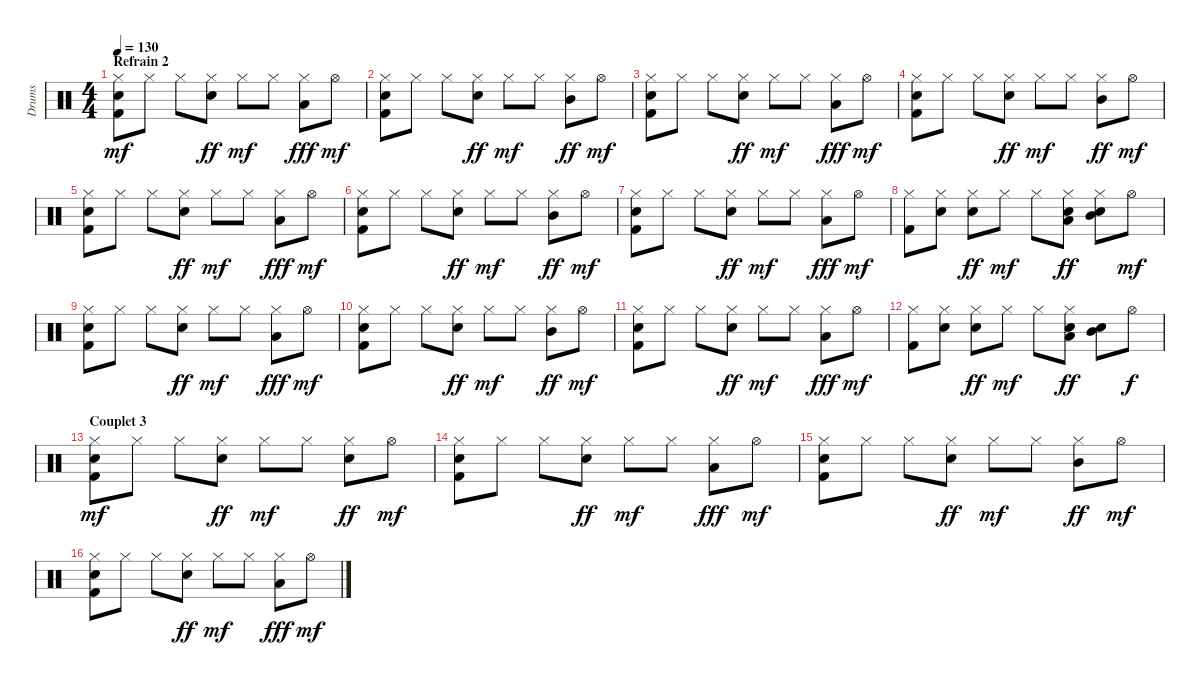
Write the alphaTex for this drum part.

\track ("Drums" "Drums") {instrument percussion}
\staff {score}
\articulation defaults
\ts (4 4)
\section ("" "Refrain 2")
\tempo 130
\clef neutral
\ks c
("Hi-Hat (closed)" "Snare (hit) 2" "Kick (hit) 2").8{dy mf} "Hi-Hat (closed)".8 "Hi-Hat (closed)".8 ("Hi-Hat (closed)" "Electric Snare (hit)").8{dy ff} "Hi-Hat (closed)".8{dy mf} "Hi-Hat (closed)".8 ("Hi-Hat (closed)" "Low Tom (hit)").8{dy fff} "Hi-Hat (open)".8{dy mf} |
("Hi-Hat (closed)" "Electric Snare (hit)" "Kick (hit) 2").8 "Hi-Hat (closed)".8 "Hi-Hat (closed)".8 ("Hi-Hat (closed)" "Electric Snare (hit)").8{dy ff} "Hi-Hat (closed)".8{dy mf} "Hi-Hat (closed)".8 ("Hi-Hat (closed)" "Mid Tom (hit)").8{dy ff} "Hi-Hat (open)".8{dy mf} |
("Hi-Hat (closed)" "Snare (hit) 2" "Kick (hit) 2").8 "Hi-Hat (closed)".8 "Hi-Hat (closed)".8 ("Hi-Hat (closed)" "Electric Snare (hit)").8{dy ff} "Hi-Hat (closed)".8{dy mf} "Hi-Hat (closed)".8 ("Hi-Hat (closed)" "Low Tom (hit)").8{dy fff} "Hi-Hat (open)".8{dy mf} |
("Hi-Hat (closed)" "Electric Snare (hit)" "Kick (hit) 2").8 "Hi-Hat (closed)".8 "Hi-Hat (closed)".8 ("Hi-Hat (closed)" "Electric Snare (hit)").8{dy ff} "Hi-Hat (closed)".8{dy mf} "Hi-Hat (closed)".8 ("Hi-Hat (closed)" "Mid Tom (hit)").8{dy ff} "Hi-Hat (open)".8{dy mf} |
("Hi-Hat (closed)" "Snare (hit) 2" "Kick (hit) 2").8 "Hi-Hat (closed)".8 "Hi-Hat (closed)".8 ("Hi-Hat (closed)" "Electric Snare (hit)").8{dy ff} "Hi-Hat (closed)".8{dy mf} "Hi-Hat (closed)".8 ("Hi-Hat (closed)" "Low Tom (hit)").8{dy fff} "Hi-Hat (open)".8{dy mf} |
("Hi-Hat (closed)" "Electric Snare (hit)" "Kick (hit) 2").8 "Hi-Hat (closed)".8 "Hi-Hat (closed)".8 ("Hi-Hat (closed)" "Electric Snare (hit)").8{dy ff} "Hi-Hat (closed)".8{dy mf} "Hi-Hat (closed)".8 ("Hi-Hat (closed)" "Mid Tom (hit)").8{dy ff} "Hi-Hat (open)".8{dy mf} |
("Hi-Hat (closed)" "Snare (hit) 2" "Kick (hit) 2").8 "Hi-Hat (closed)".8 "Hi-Hat (closed)".8 ("Hi-Hat (closed)" "Electric Snare (hit)").8{dy ff} "Hi-Hat (closed)".8{dy mf} "Hi-Hat (closed)".8 ("Hi-Hat (closed)" "Low Tom (hit)").8{dy fff} "Hi-Hat (open)".8{dy mf} |
("Hi-Hat (closed)" "Kick (hit) 2").8 ("Hi-Hat (closed)" "Electric Snare (hit)").8 ("Hi-Hat (closed)" "Electric Snare (hit)").8{dy ff} "Hi-Hat (closed)".8{dy mf} "Hi-Hat (closed)".8 ("Hi-Hat (closed)" "Electric Snare (hit)" "Low Tom (hit)").8{dy ff} ("Hi-Hat (closed)" "Electric Snare (hit)" "Mid Tom (hit)").8 "Hi-Hat (open)".8{dy mf} |
("Hi-Hat (closed)" "Snare (hit) 2" "Kick (hit) 2").8 "Hi-Hat (closed)".8 "Hi-Hat (closed)".8 ("Hi-Hat (closed)" "Electric Snare (hit)").8{dy ff} "Hi-Hat (closed)".8{dy mf} "Hi-Hat (closed)".8 ("Hi-Hat (closed)" "Low Tom (hit)").8{dy fff} "Hi-Hat (open)".8{dy mf} |
("Hi-Hat (closed)" "Electric Snare (hit)" "Kick (hit) 2").8 "Hi-Hat (closed)".8 "Hi-Hat (closed)".8 ("Hi-Hat (closed)" "Electric Snare (hit)").8{dy ff} "Hi-Hat (closed)".8{dy mf} "Hi-Hat (closed)".8 ("Hi-Hat (closed)" "Mid Tom (hit)").8{dy ff} "Hi-Hat (open)".8{dy mf} |
("Hi-Hat (closed)" "Snare (hit) 2" "Kick (hit) 2").8 "Hi-Hat (closed)".8 "Hi-Hat (closed)".8 ("Hi-Hat (closed)" "Electric Snare (hit)").8{dy ff} "Hi-Hat (closed)".8{dy mf} "Hi-Hat (closed)".8 ("Hi-Hat (closed)" "Low Tom (hit)").8{dy fff} "Hi-Hat (open)".8{dy mf} |
("Hi-Hat (closed)" "Kick (hit) 2").8 ("Hi-Hat (closed)" "Electric Snare (hit)").8 ("Hi-Hat (closed)" "Electric Snare (hit)").8{dy ff} "Hi-Hat (closed)".8{dy mf} "Hi-Hat (closed)".8 ("Hi-Hat (closed)" "Electric Snare (hit)" "Low Tom (hit)").8{dy ff} ("Electric Snare (hit)" "Mid Tom (hit)").8 "Hi-Hat (open)".8{dy f} |
\section ("" "Couplet 3")
("Hi-Hat (closed)" "Electric Snare (hit)" "Kick (hit) 2").8{dy mf} "Hi-Hat (closed)".8 "Hi-Hat (closed)".8 ("Hi-Hat (closed)" "Electric Snare (hit)").8{dy ff} "Hi-Hat (closed)".8{dy mf} "Hi-Hat (closed)".8 ("Hi-Hat (closed)" "Electric Snare (hit)").8{dy ff} "Hi-Hat (open)".8{dy mf} |
("Hi-Hat (closed)" "Snare (hit) 2" "Kick (hit) 2").8 "Hi-Hat (closed)".8 "Hi-Hat (closed)".8 ("Hi-Hat (closed)" "Electric Snare (hit)").8{dy ff} "Hi-Hat (closed)".8{dy mf} "Hi-Hat (closed)".8 ("Hi-Hat (closed)" "Low Tom (hit)").8{dy fff} "Hi-Hat (open)".8{dy mf} |
("Hi-Hat (closed)" "Electric Snare (hit)" "Kick (hit) 2").8 "Hi-Hat (closed)".8 "Hi-Hat (closed)".8 ("Hi-Hat (closed)" "Electric Snare (hit)").8{dy ff} "Hi-Hat (closed)".8{dy mf} "Hi-Hat (closed)".8 ("Hi-Hat (closed)" "Mid Tom (hit)").8{dy ff} "Hi-Hat (open)".8{dy mf} |
("Hi-Hat (closed)" "Snare (hit) 2" "Kick (hit) 2").8 "Hi-Hat (closed)".8 "Hi-Hat (closed)".8 ("Hi-Hat (closed)" "Electric Snare (hit)").8{dy ff} "Hi-Hat (closed)".8{dy mf} "Hi-Hat (closed)".8 ("Hi-Hat (closed)" "Low Tom (hit)").8{dy fff} "Hi-Hat (open)".8{dy mf}
